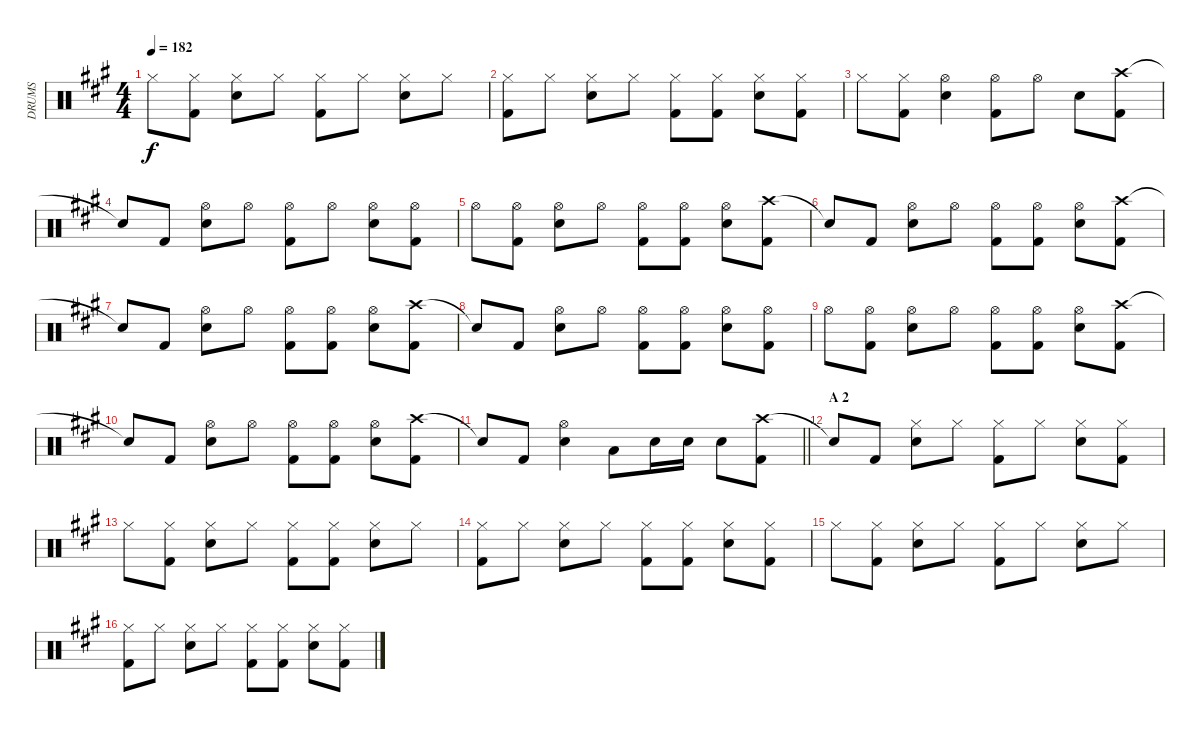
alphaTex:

\track ("DRUMS" "DRUMS") {instrument percussion}
\staff {score}
\articulation defaults
\ts (4 4)
\tempo 182
\clef neutral
\ks a "Hi-Hat (closed)".8{dy f}
("Hi-Hat (closed)" "Kick (hit) 2").8 ("Hi-Hat (closed)" "Snare (hit) 2").8 "Hi-Hat (closed)".8 ("Hi-Hat (closed)" "Kick (hit) 2").8 "Hi-Hat (closed)".8 ("Hi-Hat (closed)" "Snare (hit) 2").8 "Hi-Hat (closed)".8 |
("Hi-Hat (closed)" "Kick (hit) 2").8 "Hi-Hat (closed)".8 ("Hi-Hat (closed)" "Snare (hit) 2").8 "Hi-Hat (closed)".8 ("Hi-Hat (closed)" "Kick (hit) 2").8 ("Hi-Hat (closed)" "Kick (hit) 2").8 ("Hi-Hat (closed)" "Snare (hit) 2").8 ("Hi-Hat (closed)" "Kick (hit) 2").8 |
"Hi-Hat (closed)".8 ("Hi-Hat (closed)" "Kick (hit) 2").8 ("Hi-Hat (open)" "Snare (hit) 2").4 ("Hi-Hat (open)" "Kick (hit) 2").8 "Hi-Hat (open)".8 "Snare (hit) 2".8 ("Crash high (hit)" "Kick (hit) 2").8 |
"Snare (hit)"{t}.8 "Kick (hit) 2".8 ("Hi-Hat (open)" "Snare (hit) 2").8 "Hi-Hat (open)".8 ("Hi-Hat (open)" "Kick (hit) 2").8 "Hi-Hat (open)".8 ("Hi-Hat (open)" "Snare (hit) 2").8 ("Hi-Hat (open)" "Kick (hit) 2").8 |
"Hi-Hat (open)".8 ("Hi-Hat (open)" "Kick (hit) 2").8 ("Hi-Hat (open)" "Snare (hit) 2").8 "Hi-Hat (open)".8 ("Hi-Hat (open)" "Kick (hit) 2").8 ("Hi-Hat (open)" "Kick (hit) 2").8 ("Hi-Hat (open)" "Snare (hit) 2").8 ("Crash high (hit)" "Kick (hit) 2").8 |
"Snare (hit)"{t}.8 "Kick (hit) 2".8 ("Hi-Hat (open)" "Snare (hit) 2").8 "Hi-Hat (open)".8 ("Hi-Hat (open)" "Kick (hit) 2").8 ("Hi-Hat (open)" "Kick (hit) 2").8 ("Hi-Hat (open)" "Snare (hit) 2").8 ("Crash high (hit)" "Kick (hit) 2").8 |
"Snare (hit)"{t}.8 "Kick (hit) 2".8 ("Hi-Hat (open)" "Snare (hit) 2").8 "Hi-Hat (open)".8 ("Hi-Hat (open)" "Kick (hit) 2").8 ("Hi-Hat (open)" "Kick (hit) 2").8 ("Hi-Hat (open)" "Snare (hit) 2").8 ("Crash high (hit)" "Kick (hit) 2").8 |
"Snare (hit)"{t}.8 "Kick (hit) 2".8 ("Hi-Hat (open)" "Snare (hit) 2").8 "Hi-Hat (open)".8 ("Hi-Hat (open)" "Kick (hit) 2").8 ("Hi-Hat (open)" "Kick (hit) 2").8 ("Hi-Hat (open)" "Snare (hit) 2").8 ("Hi-Hat (open)" "Kick (hit) 2").8 |
"Hi-Hat (open)".8 ("Hi-Hat (open)" "Kick (hit) 2").8 ("Hi-Hat (open)" "Snare (hit) 2").8 "Hi-Hat (open)".8 ("Hi-Hat (open)" "Kick (hit) 2").8 ("Hi-Hat (open)" "Kick (hit) 2").8 ("Hi-Hat (open)" "Snare (hit) 2").8 ("Crash high (hit)" "Kick (hit) 2").8 |
"Snare (hit)"{t}.8 "Kick (hit) 2".8 ("Hi-Hat (open)" "Snare (hit) 2").8 "Hi-Hat (open)".8 ("Hi-Hat (open)" "Kick (hit) 2").8 ("Hi-Hat (open)" "Kick (hit) 2").8 ("Hi-Hat (open)" "Snare (hit) 2").8 ("Crash high (hit)" "Kick (hit) 2").8 |
\barLineRight lightlight "Snare (hit)"{t}.8 "Kick (hit) 2".8
("Hi-Hat (open)" "Snare (hit) 2").4 "Low Tom (hit)".8 "Snare (hit) 2".16 "Snare (hit) 2".16 "Snare (hit) 2".8 ("Crash high (hit)" "Kick (hit) 2").8 |
\section ("" "A 2")
"Snare (hit)"{t}.8 "Kick (hit) 2".8 ("Hi-Hat (closed)" "Snare (hit) 2").8 "Hi-Hat (closed)".8 ("Hi-Hat (closed)" "Kick (hit) 2").8 "Hi-Hat (closed)".8 ("Hi-Hat (closed)" "Snare (hit) 2").8 ("Hi-Hat (closed)" "Kick (hit) 2").8 |
"Hi-Hat (closed)".8 ("Hi-Hat (closed)" "Kick (hit) 2").8 ("Hi-Hat (closed)" "Snare (hit) 2").8 "Hi-Hat (closed)".8 ("Hi-Hat (closed)" "Kick (hit) 2").8 ("Hi-Hat (closed)" "Kick (hit) 2").8 ("Hi-Hat (closed)" "Snare (hit) 2").8 "Hi-Hat (closed)".8 |
("Hi-Hat (closed)" "Kick (hit) 2").8 "Hi-Hat (closed)".8 ("Hi-Hat (closed)" "Snare (hit) 2").8 "Hi-Hat (closed)".8 ("Hi-Hat (closed)" "Kick (hit) 2").8 ("Hi-Hat (closed)" "Kick (hit) 2").8 ("Hi-Hat (closed)" "Snare (hit) 2").8 ("Hi-Hat (closed)" "Kick (hit) 2").8 |
"Hi-Hat (closed)".8 ("Hi-Hat (closed)" "Kick (hit) 2").8 ("Hi-Hat (closed)" "Snare (hit) 2").8 "Hi-Hat (closed)".8 ("Hi-Hat (closed)" "Kick (hit) 2").8 "Hi-Hat (closed)".8 ("Hi-Hat (closed)" "Snare (hit) 2").8 "Hi-Hat (closed)".8 |
("Hi-Hat (closed)" "Kick (hit) 2").8 "Hi-Hat (closed)".8 ("Hi-Hat (closed)" "Snare (hit) 2").8 "Hi-Hat (closed)".8 ("Hi-Hat (closed)" "Kick (hit) 2").8 ("Hi-Hat (closed)" "Kick (hit) 2").8 ("Hi-Hat (closed)" "Snare (hit) 2").8 ("Hi-Hat (closed)" "Kick (hit) 2").8
